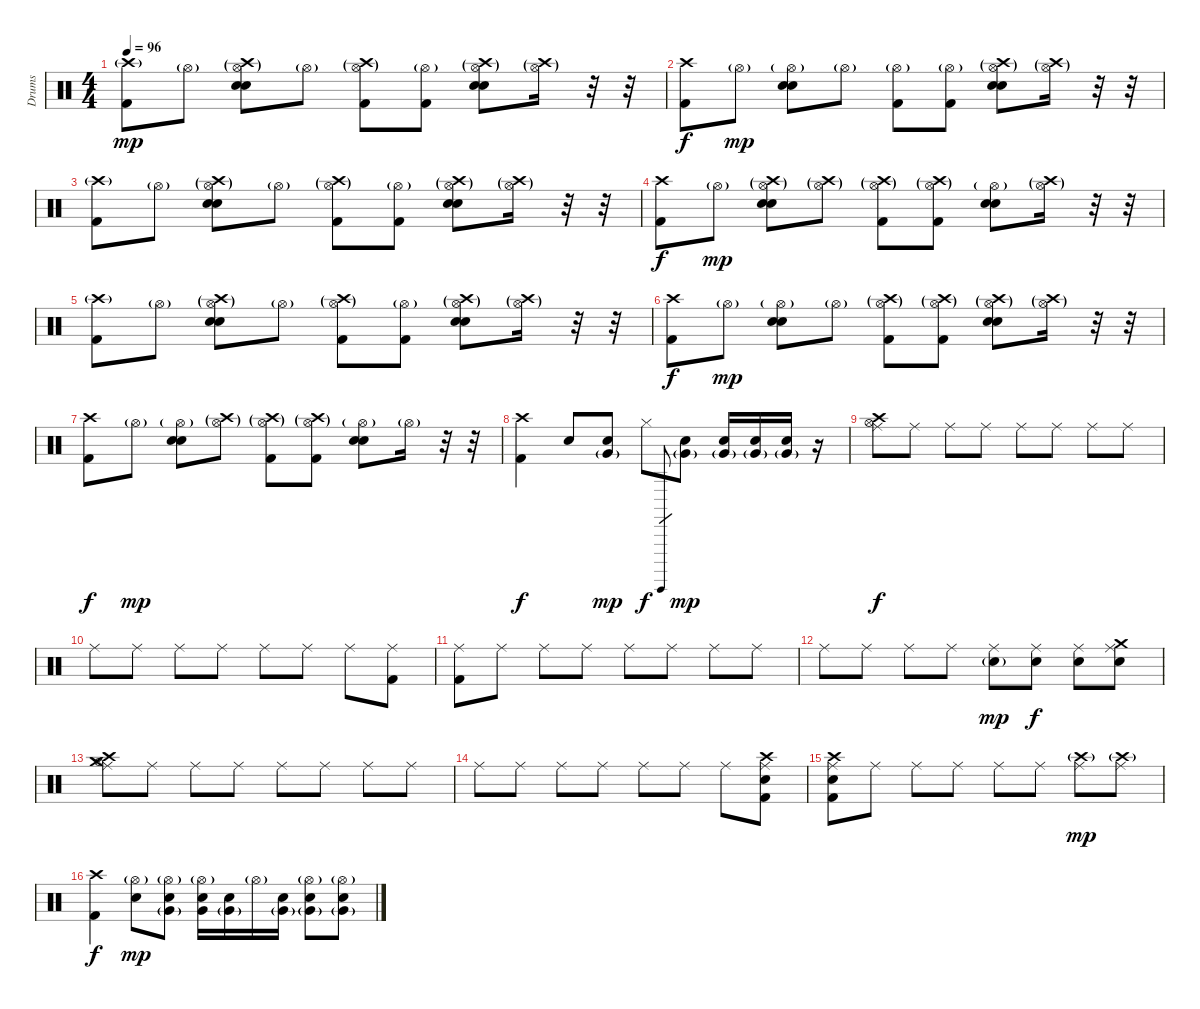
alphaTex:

\track ("Drums" "Drums") {instrument percussion}
\staff {score}
\articulation defaults
\ts (4 4)
\tempo 96
\clef neutral
\ks c
("Crash high (hit)"{g} "Kick (hit) 2").8{dy mp} "Hi-Hat (open)"{g}.8 ("Hi-Hat (open)"{g} "Crash high (hit)"{g} "Electric Snare (hit)" "Snare (hit) 2").8 "Hi-Hat (open)"{g}.8 ("Hi-Hat (open)"{g} "Crash high (hit)"{g} "Kick (hit) 2").8 ("Hi-Hat (open)"{g} "Kick (hit) 2").8 ("Hi-Hat (open)"{g} "Crash high (hit)"{g} "Electric Snare (hit)" "Snare (hit) 2").8 ("Hi-Hat (open)"{g} "Crash high (hit)"{g}).16 r.32 r.32 |
("Crash high (hit)" "Kick (hit) 2").8{dy f} "Hi-Hat (open)"{g}.8{dy mp} ("Hi-Hat (open)"{g} "Electric Snare (hit)" "Snare (hit) 2").8 "Hi-Hat (open)"{g}.8 ("Hi-Hat (open)"{g} "Kick (hit) 2").8 ("Hi-Hat (open)"{g} "Kick (hit) 2").8 ("Hi-Hat (open)"{g} "Crash high (hit)"{g} "Electric Snare (hit)" "Snare (hit) 2").8 ("Hi-Hat (open)"{g} "Crash high (hit)"{g}).16 r.32 r.32 |
("Crash high (hit)"{g} "Kick (hit) 2").8 "Hi-Hat (open)"{g}.8 ("Hi-Hat (open)"{g} "Crash high (hit)"{g} "Electric Snare (hit)" "Snare (hit) 2").8 "Hi-Hat (open)"{g}.8 ("Hi-Hat (open)"{g} "Crash high (hit)"{g} "Kick (hit) 2").8 ("Hi-Hat (open)"{g} "Kick (hit) 2").8 ("Hi-Hat (open)"{g} "Crash high (hit)"{g} "Electric Snare (hit)" "Snare (hit) 2").8 ("Hi-Hat (open)"{g} "Crash high (hit)"{g}).16 r.32 r.32 |
("Crash high (hit)" "Kick (hit) 2").8{dy f} "Hi-Hat (open)"{g}.8{dy mp} ("Hi-Hat (open)"{g} "Crash high (hit)"{g} "Electric Snare (hit)" "Snare (hit) 2").8 ("Hi-Hat (open)"{g} "Crash high (hit)"{g}).8 ("Hi-Hat (open)"{g} "Crash high (hit)"{g} "Kick (hit) 2").8 ("Hi-Hat (open)"{g} "Crash high (hit)"{g} "Kick (hit) 2").8 ("Hi-Hat (open)"{g} "Electric Snare (hit)" "Snare (hit) 2").8 ("Hi-Hat (open)"{g} "Crash high (hit)"{g}).16 r.32 r.32 |
("Crash high (hit)"{g} "Kick (hit) 2").8 "Hi-Hat (open)"{g}.8 ("Hi-Hat (open)"{g} "Crash high (hit)"{g} "Electric Snare (hit)" "Snare (hit) 2").8 "Hi-Hat (open)"{g}.8 ("Hi-Hat (open)"{g} "Crash high (hit)"{g} "Kick (hit) 2").8 ("Hi-Hat (open)"{g} "Kick (hit) 2").8 ("Hi-Hat (open)"{g} "Crash high (hit)"{g} "Electric Snare (hit)" "Snare (hit) 2").8 ("Hi-Hat (open)"{g} "Crash high (hit)"{g}).16 r.32 r.32 |
("Crash high (hit)" "Kick (hit) 2").8{dy f} "Hi-Hat (open)"{g}.8{dy mp} ("Hi-Hat (open)"{g} "Electric Snare (hit)" "Snare (hit) 2").8 "Hi-Hat (open)"{g}.8 ("Hi-Hat (open)"{g} "Crash high (hit)"{g} "Kick (hit) 2").8 ("Hi-Hat (open)"{g} "Crash high (hit)"{g} "Kick (hit) 2").8 ("Hi-Hat (open)"{g} "Crash high (hit)"{g} "Electric Snare (hit)" "Snare (hit) 2").8 ("Hi-Hat (open)"{g} "Crash high (hit)"{g}).16 r.32 r.32 |
("Crash high (hit)" "Kick (hit) 2").8{dy f} "Hi-Hat (open)"{g}.8{dy mp} ("Hi-Hat (open)"{g} "Electric Snare (hit)" "Snare (hit) 2").8 ("Hi-Hat (open)"{g} "Crash high (hit)"{g}).8 ("Hi-Hat (open)"{g} "Crash high (hit)"{g} "Kick (hit) 2").8 ("Hi-Hat (open)"{g} "Crash high (hit)"{g} "Kick (hit) 2").8 ("Hi-Hat (open)"{g} "Electric Snare (hit)" "Snare (hit) 2").8 "Hi-Hat (open)"{g}.16 r.32 r.32 |
("Crash high (hit)" "Kick (hit) 2").4{dy f} "Electric Snare (hit)".8 ("Very Low Tom (hit)"{g} "Electric Snare (hit)").8{dy mp} "Hi-Hat (closed)".8{dy f} "Surdo (hit)".8{gr} ("Very Low Tom (hit)"{g} "Electric Snare (hit)").8{dy mp} ("Very Low Tom (hit)"{g} "Electric Snare (hit)").16 ("Very Low Tom (hit)"{g} "Electric Snare (hit)").16 ("Very Low Tom (hit)"{g} "Electric Snare (hit)").16 r.16 |
("Crash high (hit)" "Hi-Hat (open)" "Ride (middle)").8{dy f} "Ride (middle)".8 "Ride (middle)".8 "Ride (middle)".8 "Ride (middle)".8 "Ride (middle)".8 "Ride (middle)".8 "Ride (middle)".8 |
"Ride (middle)".8 "Ride (middle)".8 "Ride (middle)".8 "Ride (middle)".8 "Ride (middle)".8 "Ride (middle)".8 "Ride (middle)".8 ("Ride (middle)" "Kick (hit) 2").8 |
("Ride (middle)" "Kick (hit) 2").8 "Ride (middle)".8 "Ride (middle)".8 "Ride (middle)".8 "Ride (middle)".8 "Ride (middle)".8 "Ride (middle)".8 "Ride (middle)".8 |
"Ride (middle)".8 "Ride (middle)".8 "Ride (middle)".8 "Ride (middle)".8 ("Electric Snare (hit)"{g} "Ride (middle)").8{dy mp} ("Electric Snare (hit)" "Ride (middle)").8{dy f} ("Electric Snare (hit)" "Ride (middle)").8 ("Electric Snare (hit)" "Crash medium (hit)" "Ride (middle)").8 |
("Crash medium (hit)" "Crash high (hit)" "Hi-Hat (open)" "Ride (middle)").8 "Ride (middle)".8 "Ride (middle)".8 "Ride (middle)".8 "Ride (middle)".8 "Ride (middle)".8 "Ride (middle)".8 "Ride (middle)".8 |
"Ride (middle)".8 "Ride (middle)".8 "Ride (middle)".8 "Ride (middle)".8 "Ride (middle)".8 "Ride (middle)".8 "Ride (middle)".8 ("Crash high (hit)" "Ride (middle)" "Electric Snare (hit)" "Kick (hit) 2").8 |
("Crash high (hit)" "Ride (middle)" "Electric Snare (hit)" "Kick (hit) 2").8 "Ride (middle)".8 "Ride (middle)".8 "Ride (middle)".8 "Ride (middle)".8 "Ride (middle)".8 ("Crash high (hit)"{g} "Ride (middle)").8{dy mp} ("Crash high (hit)"{g} "Ride (middle)").8 |
("Crash high (hit)" "Kick (hit) 2").4{dy f} ("Hi-Hat (open)"{g} "Electric Snare (hit)").8{dy mp} ("Hi-Hat (open)"{g} "Very Low Tom (hit)"{g} "Electric Snare (hit)").8 ("Hi-Hat (open)"{g} "Very Low Tom (hit)" "Electric Snare (hit)").16 ("Very Low Tom (hit)"{g} "Electric Snare (hit)").16 "Hi-Hat (open)"{g}.16 ("Very Low Tom (hit)"{g} "Electric Snare (hit)").16 ("Hi-Hat (open)"{g} "Very Low Tom (hit)"{g} "Electric Snare (hit)").8 ("Hi-Hat (open)"{g} "Very Low Tom (hit)"{g} "Electric Snare (hit)").8
